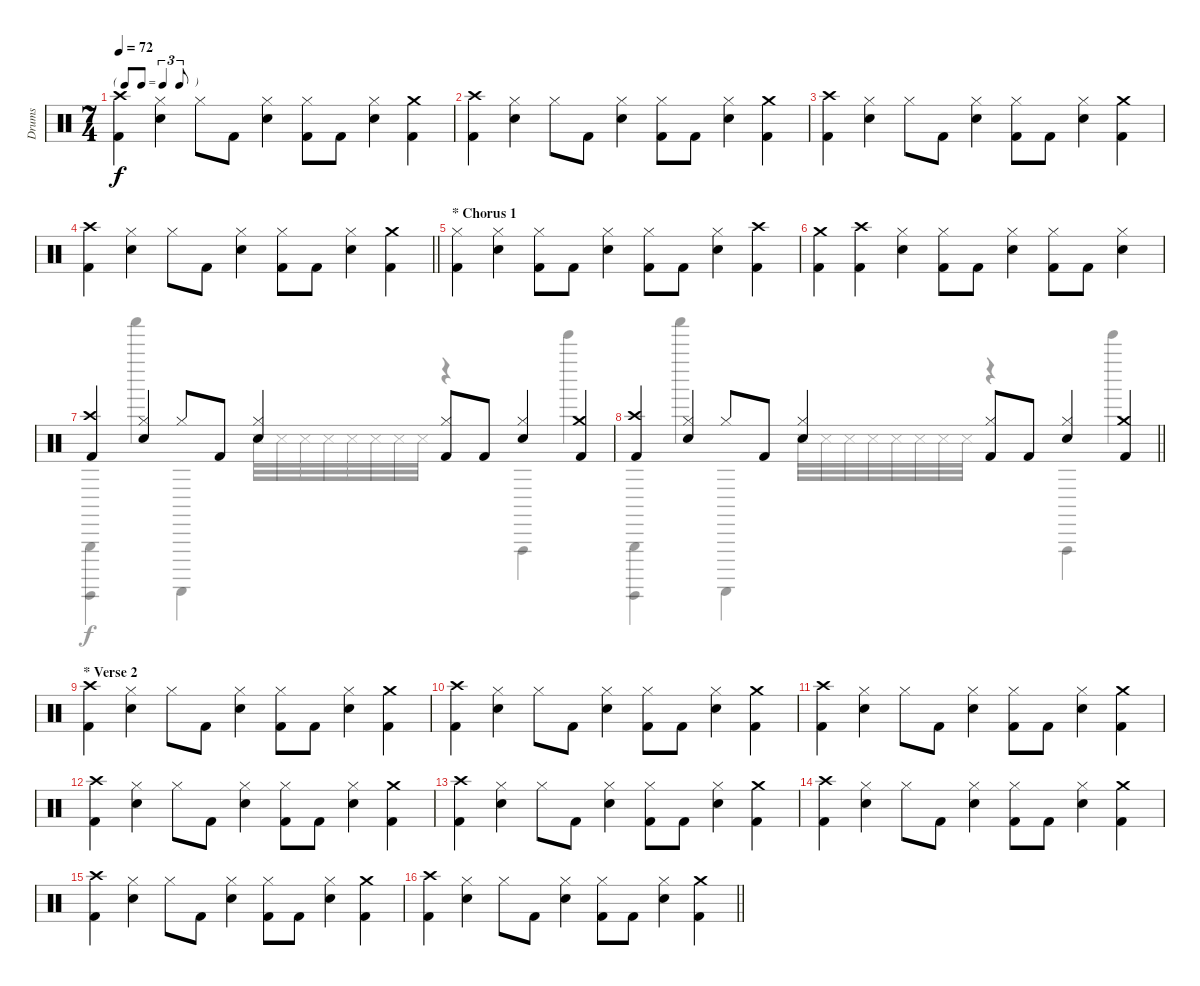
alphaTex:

\track ("Drums" "Drums") {instrument percussion}
\staff {score}
\articulation defaults
\voice
\ts (7 4)
\tf triplet8th
\tempo 72
\clef neutral
\ks c
("Crash high (hit)" "Kick (hit) 2").4{dy f} ("Hi-Hat (closed)" "Electric Snare (hit)").4 "Hi-Hat (closed)".8 "Kick (hit) 2".8 ("Hi-Hat (closed)" "Electric Snare (hit)").4 ("Hi-Hat (closed)" "Kick (hit) 2").8 "Kick (hit) 2".8 ("Hi-Hat (closed)" "Electric Snare (hit)").4 ("Crash medium (hit)" "Kick (hit) 2").4 |
("Crash high (hit)" "Kick (hit) 2").4 ("Hi-Hat (closed)" "Electric Snare (hit)").4 "Hi-Hat (closed)".8 "Kick (hit) 2".8 ("Hi-Hat (closed)" "Electric Snare (hit)").4 ("Hi-Hat (closed)" "Kick (hit) 2").8 "Kick (hit) 2".8 ("Hi-Hat (closed)" "Electric Snare (hit)").4 ("Crash medium (hit)" "Kick (hit) 2").4 |
("Crash high (hit)" "Kick (hit) 2").4 ("Hi-Hat (closed)" "Electric Snare (hit)").4 "Hi-Hat (closed)".8 "Kick (hit) 2".8 ("Hi-Hat (closed)" "Electric Snare (hit)").4 ("Hi-Hat (closed)" "Kick (hit) 2").8 "Kick (hit) 2".8 ("Hi-Hat (closed)" "Electric Snare (hit)").4 ("Crash medium (hit)" "Kick (hit) 2").4 |
\barLineRight lightlight
("Crash high (hit)" "Kick (hit) 2").4 ("Hi-Hat (closed)" "Electric Snare (hit)").4 "Hi-Hat (closed)".8 "Kick (hit) 2".8 ("Hi-Hat (closed)" "Electric Snare (hit)").4 ("Hi-Hat (closed)" "Kick (hit) 2").8 "Kick (hit) 2".8 ("Hi-Hat (closed)" "Electric Snare (hit)").4 ("Crash medium (hit)" "Kick (hit) 2").4 |
\section ("" "* Chorus 1")
("Hi-Hat (closed)" "Kick (hit) 2").4 ("Hi-Hat (closed)" "Electric Snare (hit)").4 ("Hi-Hat (closed)" "Kick (hit) 2").8 "Kick (hit) 2".8 ("Hi-Hat (closed)" "Electric Snare (hit)").4 ("Hi-Hat (closed)" "Kick (hit) 2").8 "Kick (hit) 2".8 ("Hi-Hat (closed)" "Electric Snare (hit)").4 ("Crash high (hit)" "Kick (hit) 2").4 |
("Crash medium (hit)" "Kick (hit) 2").4 ("Crash high (hit)" "Kick (hit) 2").4 ("Hi-Hat (closed)" "Electric Snare (hit)").4 ("Hi-Hat (closed)" "Kick (hit) 2").8 "Kick (hit) 2".8 ("Hi-Hat (closed)" "Electric Snare (hit)").4 ("Hi-Hat (closed)" "Kick (hit) 2").8 "Kick (hit) 2".8 ("Hi-Hat (closed)" "Electric Snare (hit)").4 |
("Crash high (hit)" "Kick (hit) 2").4 ("Hi-Hat (closed)" "Electric Snare (hit)").4 "Hi-Hat (closed)".8 "Kick (hit) 2".8 ("Hi-Hat (closed)" "Electric Snare (hit)").4 ("Hi-Hat (closed)" "Kick (hit) 2").8 "Kick (hit) 2".8 ("Hi-Hat (closed)" "Electric Snare (hit)").4 ("Crash medium (hit)" "Kick (hit) 2").4 |
\barLineRight lightlight
("Crash high (hit)" "Kick (hit) 2").4 ("Hi-Hat (closed)" "Electric Snare (hit)").4 "Hi-Hat (closed)".8 "Kick (hit) 2".8 ("Hi-Hat (closed)" "Electric Snare (hit)").4 ("Hi-Hat (closed)" "Kick (hit) 2").8 "Kick (hit) 2".8 ("Hi-Hat (closed)" "Electric Snare (hit)").4 ("Crash medium (hit)" "Kick (hit) 2").4 |
\section ("" "* Verse 2")
("Crash high (hit)" "Kick (hit) 2").4 ("Hi-Hat (closed)" "Electric Snare (hit)").4 "Hi-Hat (closed)".8 "Kick (hit) 2".8 ("Hi-Hat (closed)" "Electric Snare (hit)").4 ("Hi-Hat (closed)" "Kick (hit) 2").8 "Kick (hit) 2".8 ("Hi-Hat (closed)" "Electric Snare (hit)").4 ("Crash medium (hit)" "Kick (hit) 2").4 |
("Crash high (hit)" "Kick (hit) 2").4 ("Hi-Hat (closed)" "Electric Snare (hit)").4 "Hi-Hat (closed)".8 "Kick (hit) 2".8 ("Hi-Hat (closed)" "Electric Snare (hit)").4 ("Hi-Hat (closed)" "Kick (hit) 2").8 "Kick (hit) 2".8 ("Hi-Hat (closed)" "Electric Snare (hit)").4 ("Crash medium (hit)" "Kick (hit) 2").4 |
("Crash high (hit)" "Kick (hit) 2").4 ("Hi-Hat (closed)" "Electric Snare (hit)").4 "Hi-Hat (closed)".8 "Kick (hit) 2".8 ("Hi-Hat (closed)" "Electric Snare (hit)").4 ("Hi-Hat (closed)" "Kick (hit) 2").8 "Kick (hit) 2".8 ("Hi-Hat (closed)" "Electric Snare (hit)").4 ("Crash medium (hit)" "Kick (hit) 2").4 |
("Crash high (hit)" "Kick (hit) 2").4 ("Hi-Hat (closed)" "Electric Snare (hit)").4 "Hi-Hat (closed)".8 "Kick (hit) 2".8 ("Hi-Hat (closed)" "Electric Snare (hit)").4 ("Hi-Hat (closed)" "Kick (hit) 2").8 "Kick (hit) 2".8 ("Hi-Hat (closed)" "Electric Snare (hit)").4 ("Crash medium (hit)" "Kick (hit) 2").4 |
("Crash high (hit)" "Kick (hit) 2").4 ("Hi-Hat (closed)" "Electric Snare (hit)").4 "Hi-Hat (closed)".8 "Kick (hit) 2".8 ("Hi-Hat (closed)" "Electric Snare (hit)").4 ("Hi-Hat (closed)" "Kick (hit) 2").8 "Kick (hit) 2".8 ("Hi-Hat (closed)" "Electric Snare (hit)").4 ("Crash medium (hit)" "Kick (hit) 2").4 |
("Crash high (hit)" "Kick (hit) 2").4 ("Hi-Hat (closed)" "Electric Snare (hit)").4 "Hi-Hat (closed)".8 "Kick (hit) 2".8 ("Hi-Hat (closed)" "Electric Snare (hit)").4 ("Hi-Hat (closed)" "Kick (hit) 2").8 "Kick (hit) 2".8 ("Hi-Hat (closed)" "Electric Snare (hit)").4 ("Crash medium (hit)" "Kick (hit) 2").4 |
("Crash high (hit)" "Kick (hit) 2").4 ("Hi-Hat (closed)" "Electric Snare (hit)").4 "Hi-Hat (closed)".8 "Kick (hit) 2".8 ("Hi-Hat (closed)" "Electric Snare (hit)").4 ("Hi-Hat (closed)" "Kick (hit) 2").8 "Kick (hit) 2".8 ("Hi-Hat (closed)" "Electric Snare (hit)").4 ("Crash medium (hit)" "Kick (hit) 2").4 |
\barLineRight lightlight
("Crash high (hit)" "Kick (hit) 2").4 ("Hi-Hat (closed)" "Electric Snare (hit)").4 "Hi-Hat (closed)".8 "Kick (hit) 2".8 ("Hi-Hat (closed)" "Electric Snare (hit)").4 ("Hi-Hat (closed)" "Kick (hit) 2").8 "Kick (hit) 2".8 ("Hi-Hat (closed)" "Electric Snare (hit)").4 ("Crash medium (hit)" "Kick (hit) 2").4
\voice
\clef neutral
\ottava regular
\simile none
\ks c
|
|
|
\barLineRight lightlight
|
|
|
("Triangle (hit)" "Guiro (hit)").4 "Shaker (hit)".4 "Guiro (scrap-return)".4 "Snare (side stick) 3".32 "Snare (side stick) 3".32 "Snare (side stick) 3".32 "Snare (side stick) 3".32 "Snare (side stick) 3".32 "Snare (side stick) 3".32 "Snare (side stick) 3".32 "Snare (side stick) 3".32 r.4 "Vibraslap (hit)".4 "Tinkle Bell (hit)".4 |
\barLineRight lightlight
("Triangle (hit)" "Guiro (hit)").4 "Shaker (hit)".4 "Guiro (scrap-return)".4 "Snare (side stick) 3".32 "Snare (side stick) 3".32 "Snare (side stick) 3".32 "Snare (side stick) 3".32 "Snare (side stick) 3".32 "Snare (side stick) 3".32 "Snare (side stick) 3".32 "Snare (side stick) 3".32 r.4 "Vibraslap (hit)".4 "Tinkle Bell (hit)".4 |
|
|
|
|
|
|
|
\barLineRight lightlight
